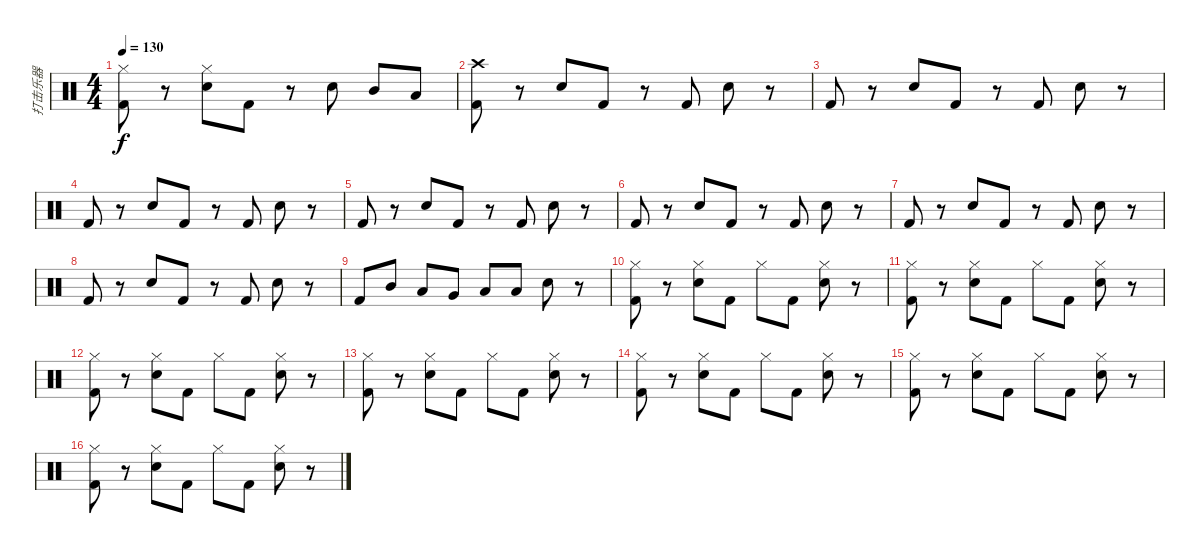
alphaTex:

\track ("打击乐器" "打击乐器") {instrument percussion}
\staff {score}
\articulation defaults
\ts (4 4)
\tempo 130
\clef neutral
\ks c
("Hi-Hat (closed)" "Kick (hit) 2").8{dy f} r.8 ("Hi-Hat (closed)" "Electric Snare (hit)").8 "Kick (hit) 2".8 r.8 "Electric Snare (hit)".8 "Mid Tom (hit)".8 "Low Tom (hit)".8 |
("Crash high (hit)" "Kick (hit) 2").8 r.8 "Electric Snare (hit)".8 "Kick (hit) 2".8 r.8 "Kick (hit) 2".8 "Electric Snare (hit)".8 r.8 |
"Kick (hit) 2".8 r.8 "Electric Snare (hit)".8 "Kick (hit) 2".8 r.8 "Kick (hit) 2".8 "Electric Snare (hit)".8 r.8 |
"Kick (hit) 2".8 r.8 "Electric Snare (hit)".8 "Kick (hit) 2".8 r.8 "Kick (hit) 2".8 "Electric Snare (hit)".8 r.8 |
"Kick (hit) 2".8 r.8 "Electric Snare (hit)".8 "Kick (hit) 2".8 r.8 "Kick (hit) 2".8 "Electric Snare (hit)".8 r.8 |
"Kick (hit) 2".8 r.8 "Electric Snare (hit)".8 "Kick (hit) 2".8 r.8 "Kick (hit) 2".8 "Electric Snare (hit)".8 r.8 |
"Kick (hit) 2".8 r.8 "Electric Snare (hit)".8 "Kick (hit) 2".8 r.8 "Kick (hit) 2".8 "Electric Snare (hit)".8 r.8 |
"Kick (hit) 2".8 r.8 "Electric Snare (hit)".8 "Kick (hit) 2".8 r.8 "Kick (hit) 2".8 "Electric Snare (hit)".8 r.8 |
"Kick (hit) 2".8 "Mid Tom (hit)".8 "Low Tom (hit)".8 "Very Low Tom (hit)".8 "Low Floor Tom (hit)".8 "Low Floor Tom (hit)".8 "Electric Snare (hit)".8 r.8 |
("Hi-Hat (closed)" "Kick (hit) 2").8 r.8 ("Hi-Hat (closed)" "Electric Snare (hit)").8 "Kick (hit) 2".8 "Hi-Hat (closed)".8 "Kick (hit) 2".8 ("Hi-Hat (closed)" "Electric Snare (hit)").8 r.8 |
("Hi-Hat (closed)" "Kick (hit) 2").8 r.8 ("Hi-Hat (closed)" "Electric Snare (hit)").8 "Kick (hit) 2".8 "Hi-Hat (closed)".8 "Kick (hit) 2".8 ("Hi-Hat (closed)" "Electric Snare (hit)").8 r.8 |
("Hi-Hat (closed)" "Kick (hit) 2").8 r.8 ("Hi-Hat (closed)" "Electric Snare (hit)").8 "Kick (hit) 2".8 "Hi-Hat (closed)".8 "Kick (hit) 2".8 ("Hi-Hat (closed)" "Electric Snare (hit)").8 r.8 |
("Hi-Hat (closed)" "Kick (hit) 2").8 r.8 ("Hi-Hat (closed)" "Electric Snare (hit)").8 "Kick (hit) 2".8 "Hi-Hat (closed)".8 "Kick (hit) 2".8 ("Hi-Hat (closed)" "Electric Snare (hit)").8 r.8 |
("Hi-Hat (closed)" "Kick (hit) 2").8 r.8 ("Hi-Hat (closed)" "Electric Snare (hit)").8 "Kick (hit) 2".8 "Hi-Hat (closed)".8 "Kick (hit) 2".8 ("Hi-Hat (closed)" "Electric Snare (hit)").8 r.8 |
("Hi-Hat (closed)" "Kick (hit) 2").8 r.8 ("Hi-Hat (closed)" "Electric Snare (hit)").8 "Kick (hit) 2".8 "Hi-Hat (closed)".8 "Kick (hit) 2".8 ("Hi-Hat (closed)" "Electric Snare (hit)").8 r.8 |
("Hi-Hat (closed)" "Kick (hit) 2").8 r.8 ("Hi-Hat (closed)" "Electric Snare (hit)").8 "Kick (hit) 2".8 "Hi-Hat (closed)".8 "Kick (hit) 2".8 ("Hi-Hat (closed)" "Electric Snare (hit)").8 r.8
